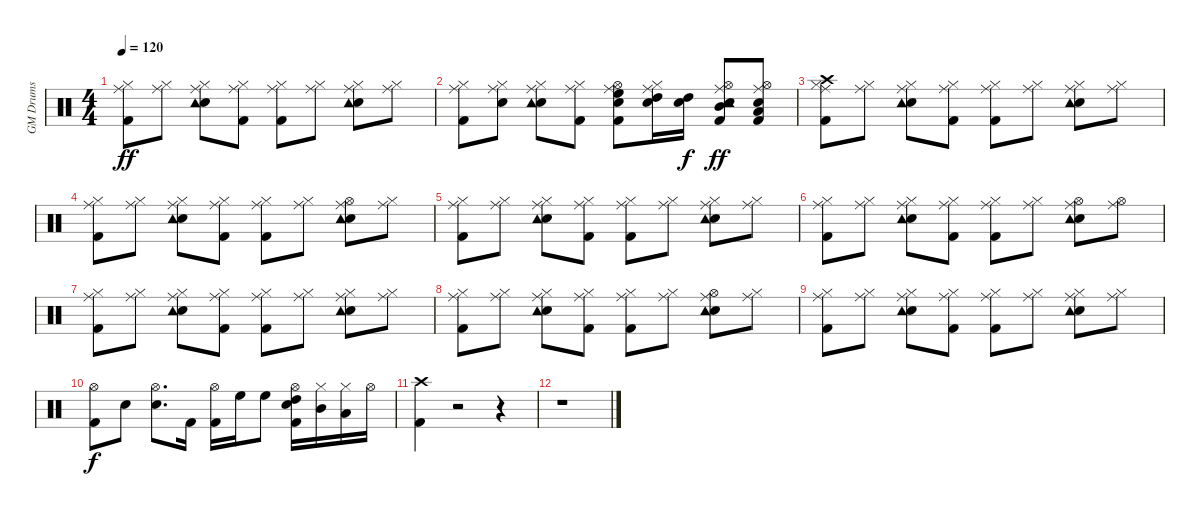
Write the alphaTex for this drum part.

\track ("GM Drums" "GM Drums") {instrument percussion}
\staff {score}
\articulation defaults
\ts (4 4)
\tempo 120
\clef neutral
\ks c
("Kick (hit) 2" "Hi-Hat (closed)" "Ride (middle)").8{dy ff} ("Hi-Hat (closed)" "Ride (middle)").8 ("Electric Snare (hit)" "Hi-Hat (closed)" "Ride (middle)" "Tambourine (hit)").8 ("Kick (hit) 2" "Hi-Hat (closed)" "Ride (middle)").8 ("Kick (hit) 2" "Hi-Hat (closed)" "Ride (middle)").8 ("Hi-Hat (closed)" "Ride (middle)").8 ("Electric Snare (hit)" "Hi-Hat (closed)" "Ride (middle)" "Tambourine (hit)").8 ("Hi-Hat (closed)" "Ride (middle)").8 |
("Kick (hit) 2" "Hi-Hat (closed)" "Ride (middle)").8 ("Electric Snare (hit)" "Hi-Hat (closed)" "Ride (middle)").8 ("Electric Snare (hit)" "Hi-Hat (closed)" "Ride (middle)" "Tambourine (hit)").8 ("Kick (hit) 2" "Hi-Hat (closed)" "Ride (middle)").8 ("Kick (hit) 2" "Electric Snare (hit)" "Hi-Hat (open)" "High Floor Tom (hit)" "Ride (middle)").8 ("Electric Snare (hit)" "Hi-Hat (closed)" "High Tom (hit)" "Ride (middle)").16 ("Electric Snare (hit)" "High Tom (hit)").16{dy f} ("Kick (hit) 2" "Electric Snare (hit)" "Hi-Hat (open)" "Mid Tom (hit)" "Ride (middle)" "Tambourine (hit)").8{dy ff} ("Kick (hit) 2" "Electric Snare (hit)" "Low Tom (hit)" "Hi-Hat (open)" "Ride (middle)").8 |
("Kick (hit) 2" "Hi-Hat (closed)" "Crash high (hit)" "Ride (middle)").8 ("Hi-Hat (closed)" "Ride (middle)").8 ("Electric Snare (hit)" "Hi-Hat (closed)" "Ride (middle)" "Tambourine (hit)").8 ("Kick (hit) 2" "Hi-Hat (closed)" "Ride (middle)").8 ("Kick (hit) 2" "Hi-Hat (closed)" "Ride (middle)").8 ("Hi-Hat (closed)" "Ride (middle)").8 ("Electric Snare (hit)" "Hi-Hat (closed)" "Ride (middle)" "Tambourine (hit)").8 ("Hi-Hat (closed)" "Ride (middle)").8 |
("Kick (hit) 2" "Hi-Hat (closed)" "Ride (middle)").8 ("Hi-Hat (closed)" "Ride (middle)").8 ("Electric Snare (hit)" "Hi-Hat (closed)" "Ride (middle)" "Tambourine (hit)").8 ("Kick (hit) 2" "Hi-Hat (closed)" "Ride (middle)").8 ("Kick (hit) 2" "Hi-Hat (closed)" "Ride (middle)").8 ("Hi-Hat (closed)" "Ride (middle)").8 ("Electric Snare (hit)" "Hi-Hat (open)" "Ride (middle)" "Tambourine (hit)").8 ("Hi-Hat (closed)" "Ride (middle)").8 |
("Kick (hit) 2" "Hi-Hat (closed)" "Ride (middle)").8 ("Hi-Hat (closed)" "Ride (middle)").8 ("Electric Snare (hit)" "Hi-Hat (closed)" "Ride (middle)" "Tambourine (hit)").8 ("Kick (hit) 2" "Hi-Hat (closed)" "Ride (middle)").8 ("Kick (hit) 2" "Hi-Hat (closed)" "Ride (middle)").8 ("Hi-Hat (closed)" "Ride (middle)").8 ("Electric Snare (hit)" "Hi-Hat (closed)" "Ride (middle)" "Tambourine (hit)").8 ("Hi-Hat (closed)" "Ride (middle)").8 |
("Kick (hit) 2" "Hi-Hat (closed)" "Ride (middle)").8 ("Hi-Hat (closed)" "Ride (middle)").8 ("Electric Snare (hit)" "Hi-Hat (closed)" "Ride (middle)" "Tambourine (hit)").8 ("Kick (hit) 2" "Hi-Hat (closed)" "Ride (middle)").8 ("Kick (hit) 2" "Hi-Hat (closed)" "Ride (middle)").8 ("Hi-Hat (closed)" "Ride (middle)").8 ("Electric Snare (hit)" "Hi-Hat (open)" "Ride (middle)" "Tambourine (hit)").8 ("Hi-Hat (open)" "Ride (middle)").8 |
("Kick (hit) 2" "Hi-Hat (closed)" "Ride (middle)").8 ("Hi-Hat (closed)" "Ride (middle)").8 ("Electric Snare (hit)" "Hi-Hat (closed)" "Ride (middle)" "Tambourine (hit)").8 ("Kick (hit) 2" "Hi-Hat (closed)" "Ride (middle)").8 ("Kick (hit) 2" "Hi-Hat (closed)" "Ride (middle)").8 ("Hi-Hat (closed)" "Ride (middle)").8 ("Electric Snare (hit)" "Hi-Hat (closed)" "Ride (middle)" "Tambourine (hit)").8 ("Hi-Hat (closed)" "Ride (middle)").8 |
("Kick (hit) 2" "Hi-Hat (closed)" "Ride (middle)").8 ("Hi-Hat (closed)" "Ride (middle)").8 ("Electric Snare (hit)" "Hi-Hat (closed)" "Ride (middle)" "Tambourine (hit)").8 ("Kick (hit) 2" "Hi-Hat (closed)" "Ride (middle)").8 ("Kick (hit) 2" "Hi-Hat (closed)" "Ride (middle)").8 ("Hi-Hat (closed)" "Ride (middle)").8 ("Electric Snare (hit)" "Hi-Hat (open)" "Ride (middle)" "Tambourine (hit)").8 ("Hi-Hat (closed)" "Ride (middle)").8 |
("Kick (hit) 2" "Hi-Hat (closed)" "Ride (middle)").8 ("Hi-Hat (closed)" "Ride (middle)").8 ("Electric Snare (hit)" "Hi-Hat (closed)" "Ride (middle)" "Tambourine (hit)").8 ("Kick (hit) 2" "Hi-Hat (closed)" "Ride (middle)").8 ("Kick (hit) 2" "Hi-Hat (closed)" "Ride (middle)").8 ("Hi-Hat (closed)" "Ride (middle)").8 ("Electric Snare (hit)" "Hi-Hat (closed)" "Ride (middle)" "Tambourine (hit)").8 ("Hi-Hat (closed)" "Ride (middle)").8 |
("Kick (hit) 2" "Hi-Hat (open)").8{dy f} "Electric Snare (hit)".8 ("Electric Snare (hit)" "Hi-Hat (open)").8{d} "Kick (hit) 2".16 ("Kick (hit) 2" "Hi-Hat (open)").16 "High Floor Tom (hit)".16 "High Floor Tom (hit)".8 ("Kick (hit) 2" "Electric Snare (hit)" "Hi-Hat (open)" "High Tom (hit)").16 ("Hi-Hat (closed)" "Mid Tom (hit)").16 ("Hi-Hat (closed)" "Low Tom (hit)").16 "Hi-Hat (open)".16 |
("Kick (hit) 2" "Crash high (hit)").4 r.2 r.4 |
r.1
